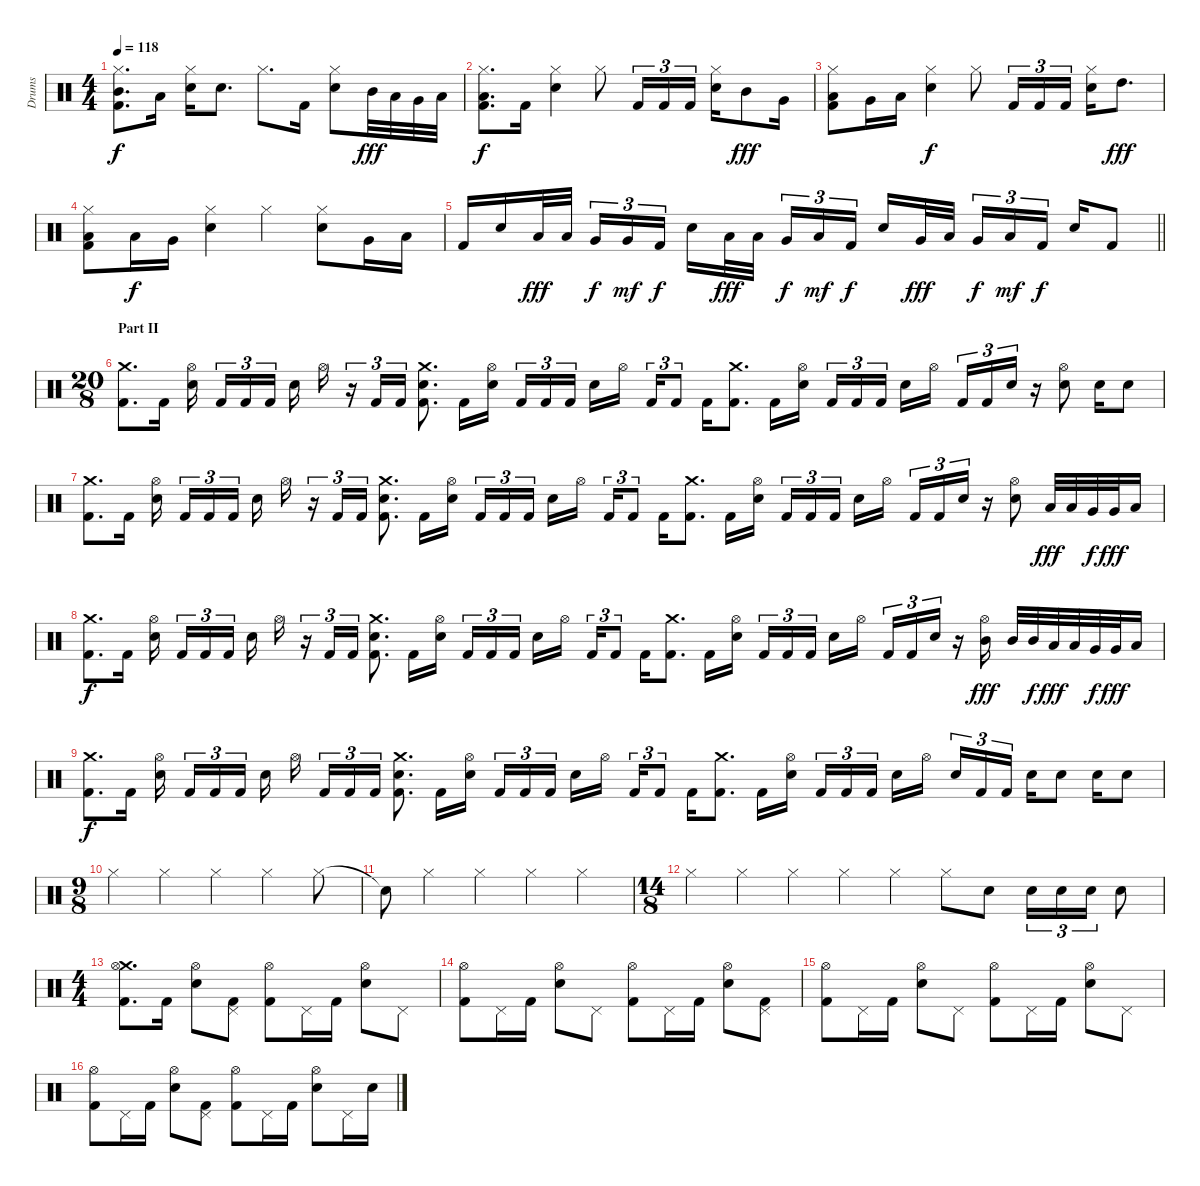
\track ("Drums" "Drums") {instrument percussion}
\staff {score}
\articulation defaults
\ts (4 4)
\tempo 118
\clef neutral
\ks c
("Hi-Hat (closed)" "Mid Tom (hit)" "Kick (hit) 2").8{d dy f} "Low Floor Tom (hit)".16 ("Hi-Hat (closed)" "Electric Snare (hit)").16 "Electric Snare (hit)".8{d} "Hi-Hat (closed)".8{d} "Kick (hit) 2".16 ("Hi-Hat (closed)" "Electric Snare (hit)").8 "Mid Tom (hit)".32{dy fff} "Low Tom (hit)".32 "Very Low Tom (hit)".32 "Low Floor Tom (hit)".32 |
("Hi-Hat (closed)" "Low Floor Tom (hit)" "Kick (hit) 2").8{d dy f} "Kick (hit) 2".16 ("Hi-Hat (closed)" "Electric Snare (hit)").4 "Hi-Hat (closed)".8 "Kick (hit) 2".16{tu (3 2)} "Kick (hit) 2".16{tu (3 2)} "Kick (hit) 2".16{tu (3 2)} ("Hi-Hat (closed)" "Electric Snare (hit)").16 "Mid Tom (hit)".8{dy fff} "Very Low Tom (hit)".16 |
("Hi-Hat (closed)" "Low Floor Tom (hit)" "Kick (hit) 2").8 "Very Low Tom (hit)".16 "Low Floor Tom (hit)".16 ("Hi-Hat (closed)" "Electric Snare (hit)").4{dy f} "Hi-Hat (closed)".8 "Kick (hit) 2".16{tu (3 2)} "Kick (hit) 2".16{tu (3 2)} "Kick (hit) 2".16{tu (3 2)} ("Hi-Hat (closed)" "Electric Snare (hit)").16 "High Tom (hit)".8{d dy fff} |
("Hi-Hat (closed)" "Low Floor Tom (hit)" "Kick (hit) 2").8 "Low Tom (hit)".16{dy f} "Very Low Tom (hit)".16 ("Hi-Hat (closed)" "Electric Snare (hit)").4 "Hi-Hat (closed)".4 ("Hi-Hat (closed)" "Electric Snare (hit)").8 "Very Low Tom (hit)".16 "Low Floor Tom (hit)".16 |
\barLineRight lightlight "Kick (hit) 2".16 "Electric Snare (hit)".16 "Low Tom (hit)".32{dy fff} "Low Tom (hit)".32{beam splitsecondary} "Very Low Tom (hit)".16{tu (3 2) dy f} "Very Low Tom (hit)".16{tu (3 2) dy mf} "Kick (hit) 2".16{tu (3 2) dy f beam splitsecondary} "Electric Snare (hit)".16 "Low Tom (hit)".32{dy fff} "Low Tom (hit)".32{beam splitsecondary} "Very Low Tom (hit)".16{tu (3 2) dy f} "Low Floor Tom (hit)".16{tu (3 2) dy mf} "Kick (hit) 2".16{tu (3 2) dy f beam splitsecondary} "Electric Snare (hit)".16 "Very Low Tom (hit)".32{dy fff} "Low Floor Tom (hit)".32{beam splitsecondary} "Very Low Tom (hit)".16{tu (3 2) dy f} "Low Floor Tom (hit)".16{tu (3 2) dy mf} "Kick (hit) 2".16{tu (3 2) dy f beam splitsecondary} "Electric Snare (hit)".16 "Kick (hit) 2".8
|
\ts (20 8)
\section ("" "Part II")
("Crash medium (hit)" "Kick (hit) 2").8{d} "Kick (hit) 2".16 ("Hi-Hat (open)" "Electric Snare (hit)").16{beam splitsecondary} "Kick (hit) 2".16{tu (3 2)} "Kick (hit) 2".16{tu (3 2)} "Kick (hit) 2".16{tu (3 2)} "Electric Snare (hit)".16 "Hi-Hat (open)".16 r.16{tu (3 2)} "Kick (hit) 2".16{tu (3 2)} "Kick (hit) 2".16{tu (3 2)} ("Crash medium (hit)" "Electric Snare (hit)" "Kick (hit) 2").8{d} "Kick (hit) 2".16 ("Hi-Hat (open)" "Electric Snare (hit)").16 "Kick (hit) 2".16{tu (3 2)} "Kick (hit) 2".16{tu (3 2)} "Kick (hit) 2".16{tu (3 2)} "Electric Snare (hit)".16 "Hi-Hat (open)".16 "Kick (hit) 2".16{tu (3 2)} "Kick (hit) 2".8{tu (3 2)} "Kick (hit) 2".16 ("Crash medium (hit)" "Kick (hit) 2").8{d} "Kick (hit) 2".16 ("Hi-Hat (open)" "Electric Snare (hit)").16 "Kick (hit) 2".16{tu (3 2)} "Kick (hit) 2".16{tu (3 2)} "Kick (hit) 2".16{tu (3 2)} "Electric Snare (hit)".16 "Hi-Hat (open)".16 "Kick (hit) 2".16{tu (3 2)} "Kick (hit) 2".16{tu (3 2)} "Electric Snare (hit)".16{tu (3 2)} r.16 ("Hi-Hat (open)" "Electric Snare (hit)").8 "Electric Snare (hit)".16 "Electric Snare (hit)".8 |
("Crash medium (hit)" "Kick (hit) 2").8{d} "Kick (hit) 2".16 ("Hi-Hat (open)" "Electric Snare (hit)").16{beam splitsecondary} "Kick (hit) 2".16{tu (3 2)} "Kick (hit) 2".16{tu (3 2)} "Kick (hit) 2".16{tu (3 2)} "Electric Snare (hit)".16 "Hi-Hat (open)".16 r.16{tu (3 2)} "Kick (hit) 2".16{tu (3 2)} "Kick (hit) 2".16{tu (3 2)} ("Crash medium (hit)" "Electric Snare (hit)" "Kick (hit) 2").8{d} "Kick (hit) 2".16 ("Hi-Hat (open)" "Electric Snare (hit)").16 "Kick (hit) 2".16{tu (3 2)} "Kick (hit) 2".16{tu (3 2)} "Kick (hit) 2".16{tu (3 2)} "Electric Snare (hit)".16 "Hi-Hat (open)".16 "Kick (hit) 2".16{tu (3 2)} "Kick (hit) 2".8{tu (3 2)} "Kick (hit) 2".16 ("Crash medium (hit)" "Kick (hit) 2").8{d} "Kick (hit) 2".16 ("Hi-Hat (open)" "Electric Snare (hit)").16 "Kick (hit) 2".16{tu (3 2)} "Kick (hit) 2".16{tu (3 2)} "Kick (hit) 2".16{tu (3 2)} "Electric Snare (hit)".16 "Hi-Hat (open)".16 "Kick (hit) 2".16{tu (3 2)} "Kick (hit) 2".16{tu (3 2)} "Electric Snare (hit)".16{tu (3 2)} r.16 ("Hi-Hat (open)" "Electric Snare (hit)").8 "Low Tom (hit)".32{dy fff} "Low Tom (hit)".32 "Very Low Tom (hit)".32{dy f} "Very Low Tom (hit)".32{dy fff} "Low Floor Tom (hit)".16 |
("Crash medium (hit)" "Kick (hit) 2").8{d dy f} "Kick (hit) 2".16 ("Hi-Hat (open)" "Electric Snare (hit)").16{beam splitsecondary} "Kick (hit) 2".16{tu (3 2)} "Kick (hit) 2".16{tu (3 2)} "Kick (hit) 2".16{tu (3 2)} "Electric Snare (hit)".16 "Hi-Hat (open)".16 r.16{tu (3 2)} "Kick (hit) 2".16{tu (3 2)} "Kick (hit) 2".16{tu (3 2)} ("Crash medium (hit)" "Electric Snare (hit)" "Kick (hit) 2").8{d} "Kick (hit) 2".16 ("Hi-Hat (open)" "Electric Snare (hit)").16 "Kick (hit) 2".16{tu (3 2)} "Kick (hit) 2".16{tu (3 2)} "Kick (hit) 2".16{tu (3 2)} "Electric Snare (hit)".16 "Hi-Hat (open)".16 "Kick (hit) 2".16{tu (3 2)} "Kick (hit) 2".8{tu (3 2)} "Kick (hit) 2".16 ("Crash medium (hit)" "Kick (hit) 2").8{d} "Kick (hit) 2".16 ("Hi-Hat (open)" "Electric Snare (hit)").16 "Kick (hit) 2".16{tu (3 2)} "Kick (hit) 2".16{tu (3 2)} "Kick (hit) 2".16{tu (3 2)} "Electric Snare (hit)".16 "Hi-Hat (open)".16 "Kick (hit) 2".16{tu (3 2)} "Kick (hit) 2".16{tu (3 2)} "Electric Snare (hit)".16{tu (3 2)} r.16 ("Hi-Hat (open)" "Mid Tom (hit)").16{dy fff} "Mid Tom (hit)".32 "Mid Tom (hit)".32{dy f} "Low Tom (hit)".32{dy fff} "Low Tom (hit)".32 "Very Low Tom (hit)".32{dy f} "Very Low Tom (hit)".32{dy fff} "Low Floor Tom (hit)".16 |
("Crash medium (hit)" "Kick (hit) 2").8{d dy f} "Kick (hit) 2".16 ("Hi-Hat (open)" "Electric Snare (hit)").16{beam splitsecondary} "Kick (hit) 2".16{tu (3 2)} "Kick (hit) 2".16{tu (3 2)} "Kick (hit) 2".16{tu (3 2)} "Electric Snare (hit)".16 "Hi-Hat (open)".16{beam splitsecondary} "Kick (hit) 2".16{tu (3 2)} "Kick (hit) 2".16{tu (3 2)} "Kick (hit) 2".16{tu (3 2)} ("Crash medium (hit)" "Electric Snare (hit)" "Kick (hit) 2").8{d} "Kick (hit) 2".16 ("Hi-Hat (open)" "Electric Snare (hit)").16 "Kick (hit) 2".16{tu (3 2)} "Kick (hit) 2".16{tu (3 2)} "Kick (hit) 2".16{tu (3 2)} "Electric Snare (hit)".16 "Hi-Hat (open)".16 "Kick (hit) 2".16{tu (3 2)} "Kick (hit) 2".8{tu (3 2)} "Kick (hit) 2".16 ("Crash medium (hit)" "Kick (hit) 2").8{d} "Kick (hit) 2".16 ("Hi-Hat (open)" "Electric Snare (hit)").16 "Kick (hit) 2".16{tu (3 2)} "Kick (hit) 2".16{tu (3 2)} "Kick (hit) 2".16{tu (3 2)} "Electric Snare (hit)".16 "Hi-Hat (open)".16 "Electric Snare (hit)".16{tu (3 2)} "Kick (hit) 2".16{tu (3 2)} "Kick (hit) 2".16{tu (3 2)} "Electric Snare (hit)".16 "Electric Snare (hit)".8 "Electric Snare (hit)".16 "Electric Snare (hit)".8 |
\ts (9 8)
"Hi-Hat (closed)".4 "Hi-Hat (closed)".4 "Hi-Hat (closed)".4 "Hi-Hat (closed)".4 "Hi-Hat (closed)".8 |
"Snare (hit)"{t}.8 "Hi-Hat (closed)".4 "Hi-Hat (closed)".4 "Hi-Hat (closed)".4 "Hi-Hat (closed)".4 |
\ts (14 8)
"Hi-Hat (closed)".4 "Hi-Hat (closed)".4 "Hi-Hat (closed)".4 "Hi-Hat (closed)".4 "Hi-Hat (closed)".4 "Hi-Hat (closed)".8 "Electric Snare (hit)".8 "Electric Snare (hit)".16{tu (3 2)} "Electric Snare (hit)".16{tu (3 2)} "Electric Snare (hit)".16{tu (3 2)} "Electric Snare (hit)".8 |
\ts (4 4)
("Crash medium (hit)" "Hi-Hat (open)" "Kick (hit) 2").8{d} "Kick (hit) 2".16 ("Hi-Hat (open)" "Electric Snare (hit)").8 ("Pedal Hi-Hat (hit)" "Kick (hit) 2").8 ("Hi-Hat (open)" "Kick (hit) 2").8 "Pedal Hi-Hat (hit)".16 "Kick (hit) 2".16 ("Hi-Hat (open)" "Electric Snare (hit)").8 "Pedal Hi-Hat (hit)".8 |
("Hi-Hat (open)" "Kick (hit) 2").8 "Pedal Hi-Hat (hit)".16 "Kick (hit) 2".16 ("Hi-Hat (open)" "Electric Snare (hit)").8 "Pedal Hi-Hat (hit)".8 ("Hi-Hat (open)" "Kick (hit) 2").8 "Pedal Hi-Hat (hit)".16 "Kick (hit) 2".16 ("Hi-Hat (open)" "Electric Snare (hit)").8 ("Pedal Hi-Hat (hit)" "Kick (hit) 2").8 |
("Hi-Hat (open)" "Kick (hit) 2").8 "Pedal Hi-Hat (hit)".16 "Kick (hit) 2".16 ("Hi-Hat (open)" "Electric Snare (hit)").8 "Pedal Hi-Hat (hit)".8 ("Hi-Hat (open)" "Kick (hit) 2").8 "Pedal Hi-Hat (hit)".16 "Kick (hit) 2".16 ("Hi-Hat (open)" "Electric Snare (hit)").8 "Pedal Hi-Hat (hit)".8 |
("Hi-Hat (open)" "Kick (hit) 2").8 "Pedal Hi-Hat (hit)".16 "Kick (hit) 2".16 ("Hi-Hat (open)" "Electric Snare (hit)").8 ("Pedal Hi-Hat (hit)" "Kick (hit) 2").8 ("Hi-Hat (open)" "Kick (hit) 2").8 "Pedal Hi-Hat (hit)".16 "Kick (hit) 2".16 ("Hi-Hat (open)" "Electric Snare (hit)").8 "Pedal Hi-Hat (hit)".16 "Electric Snare (hit)".16
